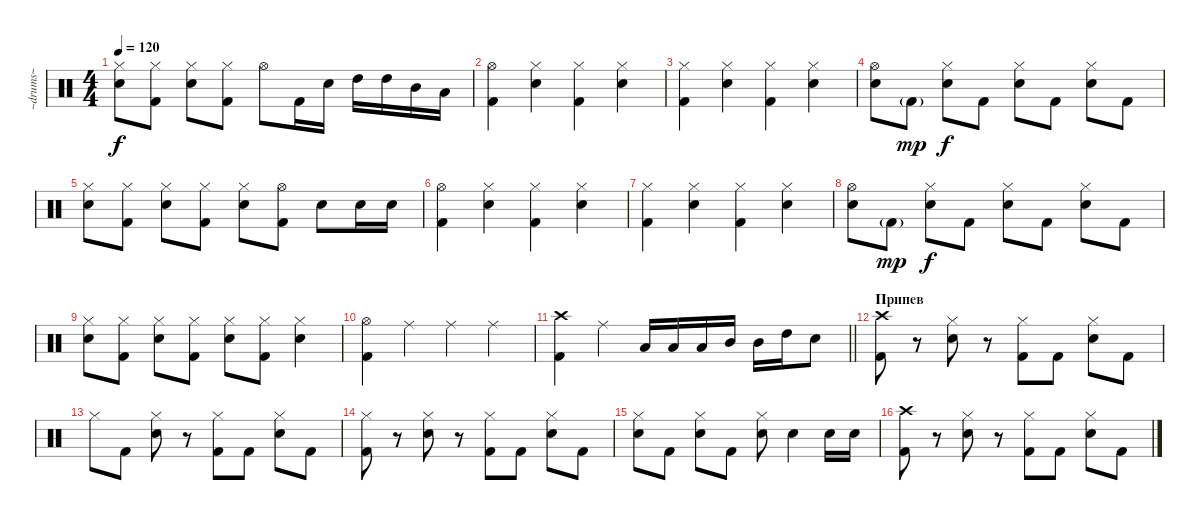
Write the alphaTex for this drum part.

\track ("~drums~" "~drums~") {instrument percussion}
\staff {score}
\articulation defaults
\ts (4 4)
\tempo 120
\clef neutral
\ks c
("Hi-Hat (closed)" "Snare (hit) 2").8{dy f} ("Hi-Hat (closed)" "Kick (hit) 2").8 ("Hi-Hat (closed)" "Snare (hit) 2").8 ("Hi-Hat (closed)" "Kick (hit) 2").8 "Hi-Hat (open)".8 "Kick (hit) 2".16 "Snare (hit) 2".16 "High Tom (hit)".16 "High Tom (hit)".16 "Mid Tom (hit)".16 "Low Tom (hit)".16 |
("Hi-Hat (open)" "Kick (hit) 2").4 ("Hi-Hat (closed)" "Snare (hit) 2").4 ("Hi-Hat (closed)" "Kick (hit) 2").4 ("Hi-Hat (closed)" "Snare (hit) 2").4 |
("Hi-Hat (closed)" "Kick (hit) 2").4 ("Hi-Hat (closed)" "Snare (hit) 2").4 ("Hi-Hat (closed)" "Kick (hit) 2").4 ("Hi-Hat (closed)" "Snare (hit) 2").4 |
("Hi-Hat (open)" "Snare (hit) 2").8 "Kick (hit) 2"{g}.8{dy mp} ("Hi-Hat (closed)" "Snare (hit) 2").8{dy f} "Kick (hit) 2".8 ("Hi-Hat (closed)" "Snare (hit) 2").8 "Kick (hit) 2".8 ("Hi-Hat (closed)" "Snare (hit) 2").8 "Kick (hit) 2".8 |
("Hi-Hat (closed)" "Snare (hit) 2").8 ("Hi-Hat (closed)" "Kick (hit) 2").8 ("Hi-Hat (closed)" "Snare (hit) 2").8 ("Hi-Hat (closed)" "Kick (hit) 2").8 ("Hi-Hat (closed)" "Snare (hit) 2").8 ("Hi-Hat (open)" "Kick (hit) 2").8 "Snare (hit) 2".8 "Snare (hit) 2".16 "Snare (hit) 2".16 |
("Hi-Hat (open)" "Kick (hit) 2").4 ("Hi-Hat (closed)" "Snare (hit) 2").4 ("Hi-Hat (closed)" "Kick (hit) 2").4 ("Hi-Hat (closed)" "Snare (hit) 2").4 |
("Hi-Hat (closed)" "Kick (hit) 2").4 ("Hi-Hat (closed)" "Snare (hit) 2").4 ("Hi-Hat (closed)" "Kick (hit) 2").4 ("Hi-Hat (closed)" "Snare (hit) 2").4 |
("Hi-Hat (open)" "Snare (hit) 2").8 "Kick (hit) 2"{g}.8{dy mp} ("Hi-Hat (closed)" "Snare (hit) 2").8{dy f} "Kick (hit) 2".8 ("Hi-Hat (closed)" "Snare (hit) 2").8 "Kick (hit) 2".8 ("Hi-Hat (closed)" "Snare (hit) 2").8 "Kick (hit) 2".8 |
("Hi-Hat (closed)" "Snare (hit) 2").8 ("Hi-Hat (closed)" "Kick (hit) 2").8 ("Hi-Hat (closed)" "Snare (hit) 2").8 ("Hi-Hat (closed)" "Kick (hit) 2").8 ("Hi-Hat (closed)" "Snare (hit) 2").8 ("Hi-Hat (closed)" "Kick (hit) 2").8 ("Hi-Hat (closed)" "Snare (hit) 2").4 |
("Hi-Hat (open)" "Kick (hit) 2").4 "Ride (middle)".4 "Ride (middle)".4 "Ride (middle)".4 |
\barLineRight lightlight
("Crash high (hit)" "Kick (hit) 2").4 "Ride (middle)".4 "Low Tom (hit)".16 "Low Tom (hit)".16 "Low Tom (hit)".16 "Mid Tom (hit)".16 "Mid Tom (hit)".16 "High Tom (hit)".16 "Snare (hit) 2".8 |
\section ("" "Припев")
("Crash high (hit)" "Kick (hit) 2").8 r.8 ("Hi-Hat (closed)" "Snare (hit) 2").8 r.8 ("Hi-Hat (closed)" "Kick (hit) 2").8 "Kick (hit) 2".8 ("Hi-Hat (closed)" "Snare (hit) 2").8 "Kick (hit) 2".8 |
"Hi-Hat (closed)".8 "Kick (hit) 2".8 ("Hi-Hat (closed)" "Snare (hit) 2").8 r.8 ("Hi-Hat (closed)" "Kick (hit) 2").8 "Kick (hit) 2".8 ("Hi-Hat (closed)" "Snare (hit) 2").8 "Kick (hit) 2".8 |
("Hi-Hat (closed)" "Kick (hit) 2").8 r.8 ("Hi-Hat (closed)" "Snare (hit) 2").8 r.8 ("Hi-Hat (closed)" "Kick (hit) 2").8 "Kick (hit) 2".8 ("Hi-Hat (closed)" "Snare (hit) 2").8 "Kick (hit) 2".8 |
("Hi-Hat (closed)" "Snare (hit) 2").8 "Kick (hit) 2".8 ("Hi-Hat (closed)" "Snare (hit) 2").8 "Kick (hit) 2".8 ("Hi-Hat (closed)" "Snare (hit) 2").8 "Snare (hit) 2".4 "Snare (hit) 2".16 "Snare (hit) 2".16 |
("Crash high (hit)" "Kick (hit) 2").8 r.8 ("Hi-Hat (closed)" "Snare (hit) 2").8 r.8 ("Hi-Hat (closed)" "Kick (hit) 2").8 "Kick (hit) 2".8 ("Hi-Hat (closed)" "Snare (hit) 2").8 "Kick (hit) 2".8
